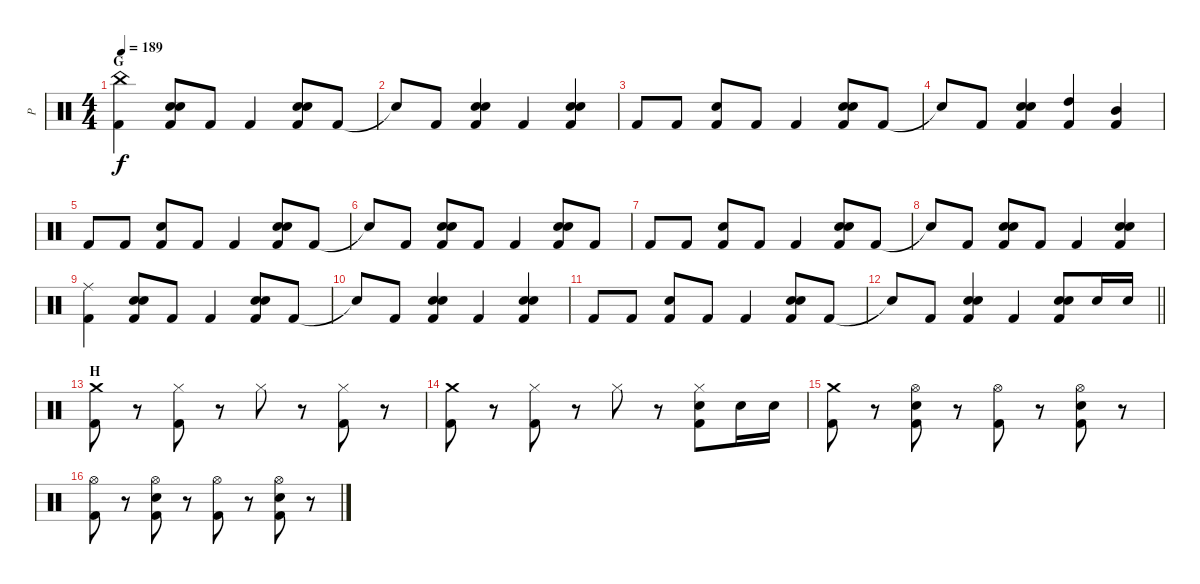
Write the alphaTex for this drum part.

\track ("P" "P") {instrument percussion}
\staff {score}
\articulation defaults
\ts (4 4)
\section ("" "G")
\tempo 189
\clef neutral
\ks c
("China (hit)" "Kick (hit) 2").4{dy f} ("Electric Snare (hit)" "Electric Snare (hit)" "Kick (hit) 2").8 "Kick (hit) 2".8 "Kick (hit) 2".4 ("Electric Snare (hit)" "Electric Snare (hit)" "Kick (hit) 2").8 "Kick (hit) 2".8 |
"Snare (hit)"{t}.8 "Kick (hit) 2".8 ("Electric Snare (hit)" "Electric Snare (hit)" "Kick (hit) 2").4 "Kick (hit) 2".4 ("Electric Snare (hit)" "Electric Snare (hit)" "Kick (hit) 2").4 |
"Kick (hit) 2".8 "Kick (hit) 2".8 ("Electric Snare (hit)" "Kick (hit) 2").8 "Kick (hit) 2".8 "Kick (hit) 2".4 ("Electric Snare (hit)" "Electric Snare (hit)" "Kick (hit) 2").8 "Kick (hit) 2".8 |
"Snare (hit)"{t}.8 "Kick (hit) 2".8 ("Electric Snare (hit)" "Electric Snare (hit)" "Kick (hit) 2").4 ("High Tom (hit)" "Kick (hit) 2").4 ("Mid Tom (hit)" "Kick (hit) 2").4 |
"Kick (hit) 2".8 "Kick (hit) 2".8 ("Electric Snare (hit)" "Kick (hit) 2").8 "Kick (hit) 2".8 "Kick (hit) 2".4 ("Electric Snare (hit)" "Electric Snare (hit)" "Kick (hit) 2").8 "Kick (hit) 2".8 |
"Snare (hit)"{t}.8 "Kick (hit) 2".8 ("Electric Snare (hit)" "Electric Snare (hit)" "Kick (hit) 2").8 "Kick (hit) 2".8 "Kick (hit) 2".4 ("Electric Snare (hit)" "Electric Snare (hit)" "Kick (hit) 2").8 "Kick (hit) 2".8 |
"Kick (hit) 2".8 "Kick (hit) 2".8 ("Electric Snare (hit)" "Kick (hit) 2").8 "Kick (hit) 2".8 "Kick (hit) 2".4 ("Electric Snare (hit)" "Electric Snare (hit)" "Kick (hit) 2").8 "Kick (hit) 2".8 |
"Snare (hit)"{t}.8 "Kick (hit) 2".8 ("Electric Snare (hit)" "Electric Snare (hit)" "Kick (hit) 2").8 "Kick (hit) 2".8 "Kick (hit) 2".4 ("Electric Snare (hit)" "Electric Snare (hit)" "Kick (hit) 2").4 |
("Ride (middle)" "Kick (hit) 2").4 ("Electric Snare (hit)" "Electric Snare (hit)" "Kick (hit) 2").8 "Kick (hit) 2".8 "Kick (hit) 2".4 ("Electric Snare (hit)" "Electric Snare (hit)" "Kick (hit) 2").8 "Kick (hit) 2".8 |
"Snare (hit)"{t}.8 "Kick (hit) 2".8 ("Electric Snare (hit)" "Electric Snare (hit)" "Kick (hit) 2").4 "Kick (hit) 2".4 ("Electric Snare (hit)" "Electric Snare (hit)" "Kick (hit) 2").4 |
"Kick (hit) 2".8 "Kick (hit) 2".8 ("Electric Snare (hit)" "Kick (hit) 2").8 "Kick (hit) 2".8 "Kick (hit) 2".4 ("Electric Snare (hit)" "Electric Snare (hit)" "Kick (hit) 2").8 "Kick (hit) 2".8 |
\barLineRight lightlight "Snare (hit)"{t}.8 "Kick (hit) 2".8
("Electric Snare (hit)" "Electric Snare (hit)" "Kick (hit) 2").4 "Kick (hit) 2".4 ("Electric Snare (hit)" "Electric Snare (hit)" "Kick (hit) 2").8 "Electric Snare (hit)".16 "Electric Snare (hit)".16 |
\section ("" "H")
("Crash medium (hit)" "Kick (hit) 2").8 r.8 ("Hi-Hat (closed)" "Kick (hit) 2").8 r.8 "Hi-Hat (closed)".8 r.8 ("Hi-Hat (closed)" "Kick (hit) 2").8 r.8 |
("Crash medium (hit)" "Kick (hit) 2").8 r.8 ("Hi-Hat (closed)" "Kick (hit) 2").8 r.8 "Hi-Hat (closed)".8 r.8 ("Hi-Hat (closed)" "Electric Snare (hit)" "Kick (hit) 2").8 "Electric Snare (hit)".16 "Electric Snare (hit)".16 |
("Crash medium (hit)" "Kick (hit) 2").8 r.8 ("Hi-Hat (open)" "Electric Snare (hit)" "Kick (hit) 2").8 r.8 ("Hi-Hat (open)" "Kick (hit) 2").8 r.8 ("Hi-Hat (open)" "Electric Snare (hit)" "Kick (hit) 2").8 r.8 |
("Hi-Hat (open)" "Kick (hit) 2").8 r.8 ("Hi-Hat (open)" "Electric Snare (hit)" "Kick (hit) 2").8 r.8 ("Hi-Hat (open)" "Kick (hit) 2").8 r.8 ("Hi-Hat (open)" "Electric Snare (hit)" "Kick (hit) 2").8 r.8
